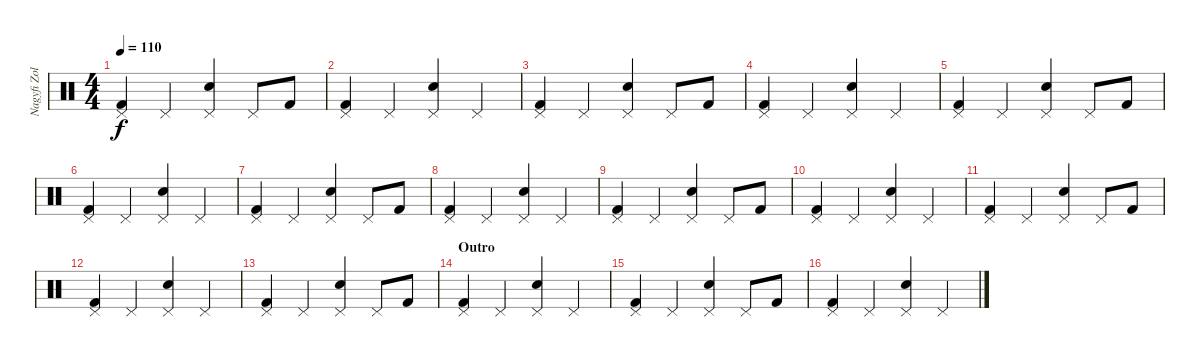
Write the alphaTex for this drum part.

\track ("Nagyfi Zoltán (dob)" "Nagyfi Zol") {instrument percussion}
\staff {score}
\articulation defaults
\ts (4 4)
\tempo 110
\clef neutral
\ks c
("Pedal Hi-Hat (hit)" "Kick (hit) 2").4{dy f} "Pedal Hi-Hat (hit)".4 ("Pedal Hi-Hat (hit)" "Snare (hit) 2").4 "Pedal Hi-Hat (hit)".8 "Kick (hit) 2".8 |
("Pedal Hi-Hat (hit)" "Kick (hit) 2").4 "Pedal Hi-Hat (hit)".4 ("Pedal Hi-Hat (hit)" "Snare (hit) 2").4 "Pedal Hi-Hat (hit)".4 |
("Pedal Hi-Hat (hit)" "Kick (hit) 2").4 "Pedal Hi-Hat (hit)".4 ("Pedal Hi-Hat (hit)" "Snare (hit) 2").4 "Pedal Hi-Hat (hit)".8 "Kick (hit) 2".8 |
("Pedal Hi-Hat (hit)" "Kick (hit) 2").4 "Pedal Hi-Hat (hit)".4 ("Pedal Hi-Hat (hit)" "Snare (hit) 2").4 "Pedal Hi-Hat (hit)".4 |
("Pedal Hi-Hat (hit)" "Kick (hit) 2").4 "Pedal Hi-Hat (hit)".4 ("Pedal Hi-Hat (hit)" "Snare (hit) 2").4 "Pedal Hi-Hat (hit)".8 "Kick (hit) 2".8 |
("Pedal Hi-Hat (hit)" "Kick (hit) 2").4 "Pedal Hi-Hat (hit)".4 ("Pedal Hi-Hat (hit)" "Snare (hit) 2").4 "Pedal Hi-Hat (hit)".4 |
("Pedal Hi-Hat (hit)" "Kick (hit) 2").4 "Pedal Hi-Hat (hit)".4 ("Pedal Hi-Hat (hit)" "Snare (hit) 2").4 "Pedal Hi-Hat (hit)".8 "Kick (hit) 2".8 |
("Pedal Hi-Hat (hit)" "Kick (hit) 2").4 "Pedal Hi-Hat (hit)".4 ("Pedal Hi-Hat (hit)" "Snare (hit) 2").4 "Pedal Hi-Hat (hit)".4 |
("Pedal Hi-Hat (hit)" "Kick (hit) 2").4 "Pedal Hi-Hat (hit)".4 ("Pedal Hi-Hat (hit)" "Snare (hit) 2").4 "Pedal Hi-Hat (hit)".8 "Kick (hit) 2".8 |
("Pedal Hi-Hat (hit)" "Kick (hit) 2").4 "Pedal Hi-Hat (hit)".4 ("Pedal Hi-Hat (hit)" "Snare (hit) 2").4 "Pedal Hi-Hat (hit)".4 |
("Pedal Hi-Hat (hit)" "Kick (hit) 2").4 "Pedal Hi-Hat (hit)".4 ("Pedal Hi-Hat (hit)" "Snare (hit) 2").4 "Pedal Hi-Hat (hit)".8 "Kick (hit) 2".8 |
("Pedal Hi-Hat (hit)" "Kick (hit) 2").4 "Pedal Hi-Hat (hit)".4 ("Pedal Hi-Hat (hit)" "Snare (hit) 2").4 "Pedal Hi-Hat (hit)".4 |
("Pedal Hi-Hat (hit)" "Kick (hit) 2").4 "Pedal Hi-Hat (hit)".4 ("Pedal Hi-Hat (hit)" "Snare (hit) 2").4 "Pedal Hi-Hat (hit)".8 "Kick (hit) 2".8 |
\section ("" "Outro")
("Pedal Hi-Hat (hit)" "Kick (hit) 2").4 "Pedal Hi-Hat (hit)".4 ("Pedal Hi-Hat (hit)" "Snare (hit) 2").4 "Pedal Hi-Hat (hit)".4 |
("Pedal Hi-Hat (hit)" "Kick (hit) 2").4 "Pedal Hi-Hat (hit)".4 ("Pedal Hi-Hat (hit)" "Snare (hit) 2").4 "Pedal Hi-Hat (hit)".8 "Kick (hit) 2".8 |
("Pedal Hi-Hat (hit)" "Kick (hit) 2").4 "Pedal Hi-Hat (hit)".4 ("Pedal Hi-Hat (hit)" "Snare (hit) 2").4 "Pedal Hi-Hat (hit)".4
